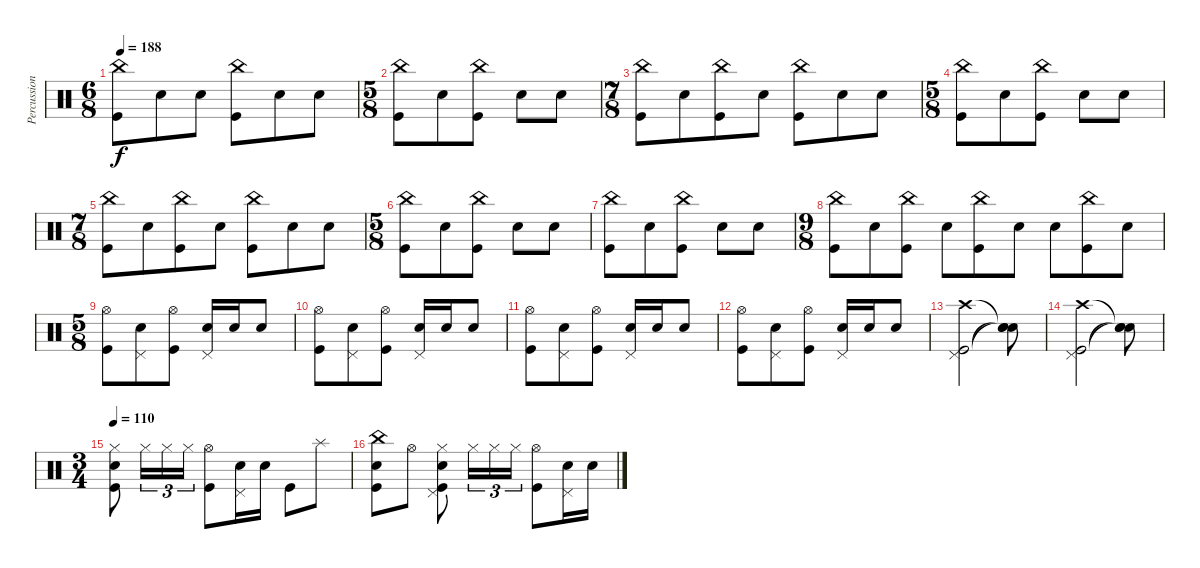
\track ("Percussion" "Percussion") {instrument percussion}
\staff {score}
\articulation defaults
\ts (6 8)
\tempo 188
\clef neutral
\ks c
("China (hit)" "Kick (hit)").8{dy f} "Electric Snare (hit)".8 "Electric Snare (hit)".8 ("China (hit)" "Kick (hit)").8 "Electric Snare (hit)".8 "Electric Snare (hit)".8 |
\ts (5 8)
("Kick (hit)" "China (hit)").8 "Electric Snare (hit)".8 ("Kick (hit)" "China (hit)").8 "Electric Snare (hit)".8 "Electric Snare (hit)".8 |
\ts (7 8)
("China (hit)" "Kick (hit)").8 "Electric Snare (hit)".8 ("China (hit)" "Kick (hit)").8 "Electric Snare (hit)".8 ("China (hit)" "Kick (hit)").8 "Electric Snare (hit)".8 "Electric Snare (hit)".8 |
\ts (5 8)
("Kick (hit)" "China (hit)").8 "Electric Snare (hit)".8 ("Kick (hit)" "China (hit)").8 "Electric Snare (hit)".8 "Electric Snare (hit)".8 |
\ts (7 8)
("China (hit)" "Kick (hit)").8 "Electric Snare (hit)".8 ("China (hit)" "Kick (hit)").8 "Electric Snare (hit)".8 ("China (hit)" "Kick (hit)").8 "Electric Snare (hit)".8 "Electric Snare (hit)".8 |
\ts (5 8)
("Kick (hit)" "China (hit)").8 "Electric Snare (hit)".8 ("Kick (hit)" "China (hit)").8 "Electric Snare (hit)".8 "Electric Snare (hit)".8 |
("Kick (hit)" "China (hit)").8 "Electric Snare (hit)".8 ("Kick (hit)" "China (hit)").8 "Electric Snare (hit)".8 "Electric Snare (hit)".8 |
\ts (9 8)
("China (hit)" "Kick (hit)").8 "Electric Snare (hit)".8 ("China (hit)" "Kick (hit)").8 "Electric Snare (hit)".8 ("China (hit)" "Kick (hit)").8 "Electric Snare (hit)".8 "Electric Snare (hit)".8 ("China (hit)" "Kick (hit)").8 "Electric Snare (hit)".8 |
\ts (5 8)
("Kick (hit)" "Hi-Hat (open)").8 ("Snare (hit) 2" "Pedal Hi-Hat (hit)").8 ("Kick (hit)" "Hi-Hat (open)").8 ("Snare (hit) 2" "Pedal Hi-Hat (hit)").16 "Snare (hit) 2".16 "Snare (hit) 2".8 |
("Kick (hit)" "Hi-Hat (open)").8 ("Snare (hit) 2" "Pedal Hi-Hat (hit)").8 ("Kick (hit)" "Hi-Hat (open)").8 ("Snare (hit) 2" "Pedal Hi-Hat (hit)").16 "Snare (hit) 2".16 "Snare (hit) 2".8 |
("Kick (hit)" "Hi-Hat (open)").8 ("Snare (hit) 2" "Pedal Hi-Hat (hit)").8 ("Kick (hit)" "Hi-Hat (open)").8 ("Snare (hit) 2" "Pedal Hi-Hat (hit)").16 "Snare (hit) 2".16 "Snare (hit) 2".8 |
("Kick (hit)" "Hi-Hat (open)").8 ("Snare (hit) 2" "Pedal Hi-Hat (hit)").8 ("Kick (hit)" "Hi-Hat (open)").8 ("Snare (hit) 2" "Pedal Hi-Hat (hit)").16 "Snare (hit) 2".16 "Snare (hit) 2".8 |
("Pedal Hi-Hat (hit)" "Crash high (hit)" "Kick (hit)").2 ("Snare (hit)"{t} "Snare (hit)"{t} "Snare (hit)"{t}).8 |
("Pedal Hi-Hat (hit)" "Crash high (hit)" "Kick (hit)").2 ("Snare (hit)"{t} "Snare (hit)"{t} "Snare (hit)"{t}).8 |
\ts (3 4)
\tempo 110
("Hi-Hat (closed)" "Electric Snare (hit)" "Kick (hit)").8 "Hi-Hat (closed)".16{tu (3 2)} "Hi-Hat (closed)".16{tu (3 2)} "Hi-Hat (closed)".16{tu (3 2)} ("Kick (hit)" "Hi-Hat (open)").8 ("Snare (hit) 2" "Pedal Hi-Hat (hit)").16 "Snare (hit) 2".16 "Kick (hit)".8 "Splash (hit)".8 |
("Electric Snare (hit)" "Kick (hit)" "China (hit)").8 "Hi-Hat (open)".8 ("Pedal Hi-Hat (hit)" "Hi-Hat (closed)" "Electric Snare (hit)" "Kick (hit)").8 "Hi-Hat (closed)".16{tu (3 2)} "Hi-Hat (closed)".16{tu (3 2)} "Hi-Hat (closed)".16{tu (3 2)} ("Kick (hit)" "Hi-Hat (open)").8 ("Snare (hit) 2" "Pedal Hi-Hat (hit)").16 "Snare (hit) 2".16
